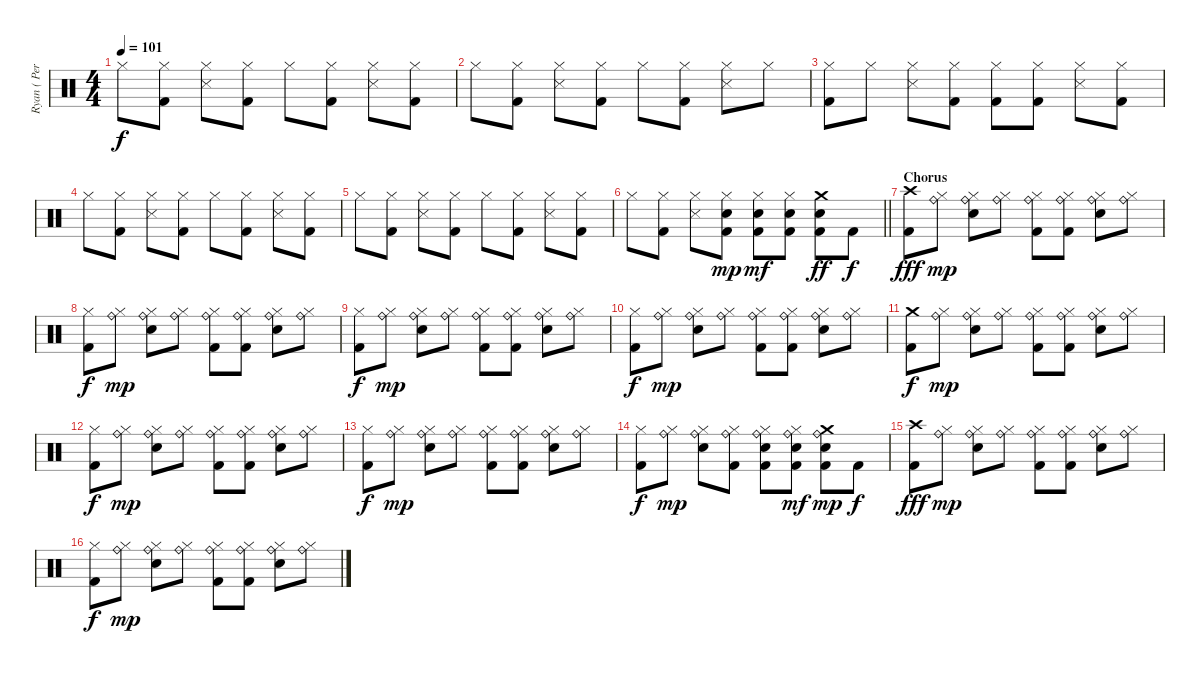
\track ("Ryan ( Percussion )" "Ryan ( Per") {instrument percussion}
\staff {score}
\articulation defaults
\ts (4 4)
\tempo 101
\clef neutral
\ks c "Hi-Hat (closed)".8{dy f}
("Hi-Hat (closed)" "Kick (hit) 2").8 ("Hi-Hat (closed)" "Snare (side stick) 3").8 ("Hi-Hat (closed)" "Kick (hit) 2").8 "Hi-Hat (closed)".8 ("Hi-Hat (closed)" "Kick (hit) 2").8 ("Hi-Hat (closed)" "Snare (side stick) 3").8 ("Hi-Hat (closed)" "Kick (hit) 2").8 |
"Hi-Hat (closed)".8 ("Hi-Hat (closed)" "Kick (hit) 2").8 ("Hi-Hat (closed)" "Snare (side stick) 3").8 ("Hi-Hat (closed)" "Kick (hit) 2").8 "Hi-Hat (closed)".8 ("Hi-Hat (closed)" "Kick (hit) 2").8 ("Hi-Hat (closed)" "Snare (side stick) 3").8 "Hi-Hat (closed)".8 |
("Hi-Hat (closed)" "Kick (hit) 2").8 "Hi-Hat (closed)".8 ("Hi-Hat (closed)" "Snare (side stick) 3").8 ("Hi-Hat (closed)" "Kick (hit) 2").8 ("Hi-Hat (closed)" "Kick (hit) 2").8 ("Hi-Hat (closed)" "Kick (hit) 2").8 ("Hi-Hat (closed)" "Snare (side stick) 3").8 ("Hi-Hat (closed)" "Kick (hit) 2").8 |
"Hi-Hat (closed)".8 ("Hi-Hat (closed)" "Kick (hit) 2").8 ("Hi-Hat (closed)" "Snare (side stick) 3").8 ("Hi-Hat (closed)" "Kick (hit) 2").8 "Hi-Hat (closed)".8 ("Hi-Hat (closed)" "Kick (hit) 2").8 ("Hi-Hat (closed)" "Snare (side stick) 3").8 ("Hi-Hat (closed)" "Kick (hit) 2").8 |
"Hi-Hat (closed)".8 ("Hi-Hat (closed)" "Kick (hit) 2").8 ("Hi-Hat (closed)" "Snare (side stick) 3").8 ("Hi-Hat (closed)" "Kick (hit) 2").8 "Hi-Hat (closed)".8 ("Hi-Hat (closed)" "Kick (hit) 2").8 ("Hi-Hat (closed)" "Snare (side stick) 3").8 ("Hi-Hat (closed)" "Kick (hit) 2").8 |
\barLineRight lightlight "Hi-Hat (closed)".8
("Hi-Hat (closed)" "Kick (hit) 2").8 ("Hi-Hat (closed)" "Snare (side stick) 3").8 ("Hi-Hat (closed)" "Kick (hit) 2" "Snare (hit) 2").8{dy mp} ("Hi-Hat (closed)" "Kick (hit) 2" "Snare (hit) 2").8{dy mf} ("Hi-Hat (closed)" "Kick (hit) 2" "Snare (hit) 2").8 ("Crash medium (hit)" "Kick (hit) 2" "Snare (hit) 2").8{dy ff} "Kick (hit) 2".8{dy f} |
\section ("" "Chorus")
("Crash high (hit)" "Kick (hit) 2").8{dy fff} ("Hi-Hat (closed)" "Ride (bell)").8{dy mp} ("Hi-Hat (closed)" "Snare (hit) 2" "Ride (bell)").8 ("Hi-Hat (closed)" "Ride (bell)").8 ("Hi-Hat (closed)" "Kick (hit) 2" "Ride (bell)").8 ("Hi-Hat (closed)" "Kick (hit) 2" "Ride (bell)").8 ("Hi-Hat (closed)" "Snare (hit) 2" "Ride (bell)").8 ("Hi-Hat (closed)" "Ride (bell)").8 |
("Hi-Hat (closed)" "Kick (hit) 2").8{dy f} ("Hi-Hat (closed)" "Ride (bell)").8{dy mp} ("Hi-Hat (closed)" "Snare (hit) 2" "Ride (bell)").8 ("Hi-Hat (closed)" "Ride (bell)").8 ("Hi-Hat (closed)" "Kick (hit) 2" "Ride (bell)").8 ("Hi-Hat (closed)" "Kick (hit) 2" "Ride (bell)").8 ("Hi-Hat (closed)" "Snare (hit) 2" "Ride (bell)").8 ("Hi-Hat (closed)" "Ride (bell)").8 |
("Hi-Hat (closed)" "Kick (hit) 2").8{dy f} ("Hi-Hat (closed)" "Ride (bell)").8{dy mp} ("Hi-Hat (closed)" "Snare (hit) 2" "Ride (bell)").8 ("Hi-Hat (closed)" "Ride (bell)").8 ("Hi-Hat (closed)" "Kick (hit) 2" "Ride (bell)").8 ("Hi-Hat (closed)" "Kick (hit) 2" "Ride (bell)").8 ("Hi-Hat (closed)" "Snare (hit) 2" "Ride (bell)").8 ("Hi-Hat (closed)" "Ride (bell)").8 |
("Hi-Hat (closed)" "Kick (hit) 2").8{dy f} ("Hi-Hat (closed)" "Ride (bell)").8{dy mp} ("Hi-Hat (closed)" "Snare (hit) 2" "Ride (bell)").8 ("Hi-Hat (closed)" "Ride (bell)").8 ("Hi-Hat (closed)" "Kick (hit) 2" "Ride (bell)").8 ("Hi-Hat (closed)" "Kick (hit) 2" "Ride (bell)").8 ("Hi-Hat (closed)" "Snare (hit) 2" "Ride (bell)").8 ("Hi-Hat (closed)" "Ride (bell)").8 |
("Crash medium (hit)" "Kick (hit) 2").8{dy f} ("Hi-Hat (closed)" "Ride (bell)").8{dy mp} ("Hi-Hat (closed)" "Snare (hit) 2" "Ride (bell)").8 ("Hi-Hat (closed)" "Ride (bell)").8 ("Hi-Hat (closed)" "Kick (hit) 2" "Ride (bell)").8 ("Hi-Hat (closed)" "Kick (hit) 2" "Ride (bell)").8 ("Hi-Hat (closed)" "Snare (hit) 2" "Ride (bell)").8 ("Hi-Hat (closed)" "Ride (bell)").8 |
("Hi-Hat (closed)" "Kick (hit) 2").8{dy f} ("Hi-Hat (closed)" "Ride (bell)").8{dy mp} ("Hi-Hat (closed)" "Snare (hit) 2" "Ride (bell)").8 ("Hi-Hat (closed)" "Ride (bell)").8 ("Hi-Hat (closed)" "Kick (hit) 2" "Ride (bell)").8 ("Hi-Hat (closed)" "Kick (hit) 2" "Ride (bell)").8 ("Hi-Hat (closed)" "Snare (hit) 2" "Ride (bell)").8 ("Hi-Hat (closed)" "Ride (bell)").8 |
("Hi-Hat (closed)" "Kick (hit) 2").8{dy f} ("Hi-Hat (closed)" "Ride (bell)").8{dy mp} ("Hi-Hat (closed)" "Snare (hit) 2" "Ride (bell)").8 ("Hi-Hat (closed)" "Ride (bell)").8 ("Hi-Hat (closed)" "Kick (hit) 2" "Ride (bell)").8 ("Hi-Hat (closed)" "Kick (hit) 2" "Ride (bell)").8 ("Hi-Hat (closed)" "Snare (hit) 2" "Ride (bell)").8 ("Hi-Hat (closed)" "Ride (bell)").8 |
("Hi-Hat (closed)" "Kick (hit) 2").8{dy f} ("Hi-Hat (closed)" "Ride (bell)").8{dy mp} ("Hi-Hat (closed)" "Snare (hit) 2" "Ride (bell)").8 ("Hi-Hat (closed)" "Kick (hit) 2" "Ride (bell)").8 ("Hi-Hat (closed)" "Kick (hit) 2" "Snare (hit) 2" "Ride (bell)").8 ("Hi-Hat (closed)" "Kick (hit) 2" "Snare (hit) 2" "Ride (bell)").8{dy mf} ("Crash medium (hit)" "Kick (hit) 2" "Snare (hit) 2" "Ride (bell)").8{dy mp} "Kick (hit) 2".8{dy f} |
("Crash high (hit)" "Kick (hit) 2").8{dy fff} ("Hi-Hat (closed)" "Ride (bell)").8{dy mp} ("Hi-Hat (closed)" "Snare (hit) 2" "Ride (bell)").8 ("Hi-Hat (closed)" "Ride (bell)").8 ("Hi-Hat (closed)" "Kick (hit) 2" "Ride (bell)").8 ("Hi-Hat (closed)" "Kick (hit) 2" "Ride (bell)").8 ("Hi-Hat (closed)" "Snare (hit) 2" "Ride (bell)").8 ("Hi-Hat (closed)" "Ride (bell)").8 |
("Hi-Hat (closed)" "Kick (hit) 2").8{dy f} ("Hi-Hat (closed)" "Ride (bell)").8{dy mp} ("Hi-Hat (closed)" "Snare (hit) 2" "Ride (bell)").8 ("Hi-Hat (closed)" "Ride (bell)").8 ("Hi-Hat (closed)" "Kick (hit) 2" "Ride (bell)").8 ("Hi-Hat (closed)" "Kick (hit) 2" "Ride (bell)").8 ("Hi-Hat (closed)" "Snare (hit) 2" "Ride (bell)").8 ("Hi-Hat (closed)" "Ride (bell)").8
